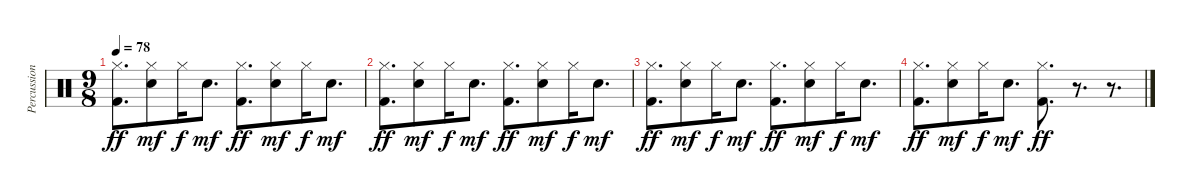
\track ("Percussion" "Percussion") {instrument percussion}
\staff {score}
\articulation defaults
\ts (9 8)
\tempo 78
\clef neutral
\ks c
("Hi-Hat (closed)" "Kick (hit) 2").8{d dy ff} ("Hi-Hat (closed)" "Electric Snare (hit)").8{dy mf} "Hi-Hat (closed)".16{dy f beam merge} "Electric Snare (hit)".8{d dy mf beam split} ("Hi-Hat (closed)" "Kick (hit) 2").8{d dy ff beam merge} ("Hi-Hat (closed)" "Electric Snare (hit)").8{dy mf} "Hi-Hat (closed)".16{dy f} "Electric Snare (hit)".8{d dy mf} |
("Hi-Hat (closed)" "Kick (hit) 2").8{d dy ff} ("Hi-Hat (closed)" "Electric Snare (hit)").8{dy mf} "Hi-Hat (closed)".16{dy f beam merge} "Electric Snare (hit)".8{d dy mf beam split} ("Hi-Hat (closed)" "Kick (hit) 2").8{d dy ff beam merge} ("Hi-Hat (closed)" "Electric Snare (hit)").8{dy mf} "Hi-Hat (closed)".16{dy f} "Electric Snare (hit)".8{d dy mf} |
("Hi-Hat (closed)" "Kick (hit) 2").8{d dy ff} ("Hi-Hat (closed)" "Electric Snare (hit)").8{dy mf} "Hi-Hat (closed)".16{dy f beam merge} "Electric Snare (hit)".8{d dy mf beam split} ("Hi-Hat (closed)" "Kick (hit) 2").8{d dy ff beam merge} ("Hi-Hat (closed)" "Electric Snare (hit)").8{dy mf} "Hi-Hat (closed)".16{dy f} "Electric Snare (hit)".8{d dy mf} |
("Hi-Hat (closed)" "Kick (hit) 2").8{d dy ff} ("Hi-Hat (closed)" "Electric Snare (hit)").8{dy mf} "Hi-Hat (closed)".16{dy f beam merge} "Electric Snare (hit)".8{d dy mf beam split} ("Hi-Hat (closed)" "Kick (hit) 2").8{d dy ff beam merge} r.8{d} r.8{d}
